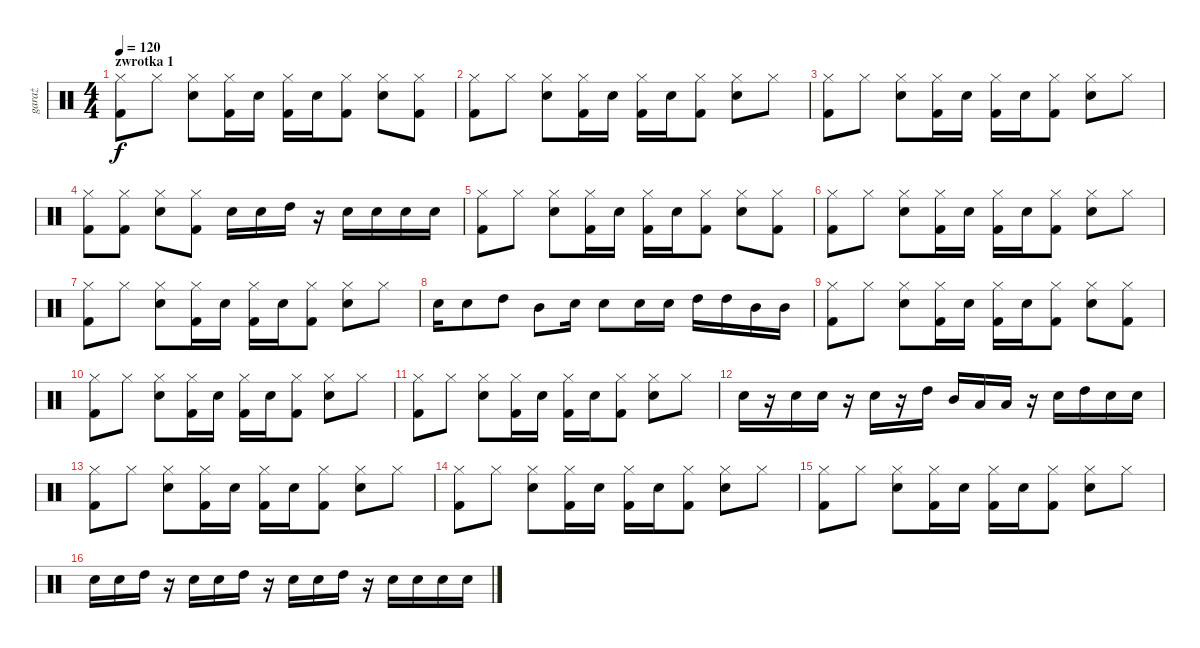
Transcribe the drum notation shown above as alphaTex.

\track ("garaż" "garaż") {instrument percussion}
\staff {score}
\articulation defaults
\ts (4 4)
\section ("" "zwrotka 1")
\tempo 120
\clef neutral
\ks c
("Hi-Hat (closed)" "Kick (hit) 2").8{dy f} "Hi-Hat (closed)".8 ("Hi-Hat (closed)" "Snare (hit) 2").8 ("Hi-Hat (closed)" "Kick (hit) 2").16 "Snare (hit) 2".16 ("Hi-Hat (closed)" "Kick (hit) 2").16 "Snare (hit) 2".16 ("Hi-Hat (closed)" "Kick (hit) 2").8 ("Hi-Hat (closed)" "Snare (hit) 2").8 ("Hi-Hat (closed)" "Kick (hit) 2").8 |
("Hi-Hat (closed)" "Kick (hit) 2").8 "Hi-Hat (closed)".8 ("Hi-Hat (closed)" "Snare (hit) 2").8 ("Hi-Hat (closed)" "Kick (hit) 2").16 "Snare (hit) 2".16 ("Hi-Hat (closed)" "Kick (hit) 2").16 "Snare (hit) 2".16 ("Hi-Hat (closed)" "Kick (hit) 2").8 ("Hi-Hat (closed)" "Snare (hit) 2").8 "Hi-Hat (closed)".8 |
("Hi-Hat (closed)" "Kick (hit) 2").8 "Hi-Hat (closed)".8 ("Hi-Hat (closed)" "Snare (hit) 2").8 ("Hi-Hat (closed)" "Kick (hit) 2").16 "Snare (hit) 2".16 ("Hi-Hat (closed)" "Kick (hit) 2").16 "Snare (hit) 2".16 ("Hi-Hat (closed)" "Kick (hit) 2").8 ("Hi-Hat (closed)" "Snare (hit) 2").8 "Hi-Hat (closed)".8 |
("Hi-Hat (closed)" "Kick (hit) 2").8 ("Hi-Hat (closed)" "Kick (hit) 2").8 ("Hi-Hat (closed)" "Snare (hit) 2").8 ("Hi-Hat (closed)" "Kick (hit) 2").8 "Snare (hit) 2".16 "Snare (hit) 2".16 "High Tom (hit)".16 r.16 "Snare (hit) 2".16 "Snare (hit) 2".16 "Snare (hit) 2".16 "Snare (hit) 2".16 |
("Hi-Hat (closed)" "Kick (hit) 2").8 "Hi-Hat (closed)".8 ("Hi-Hat (closed)" "Snare (hit) 2").8 ("Hi-Hat (closed)" "Kick (hit) 2").16 "Snare (hit) 2".16 ("Hi-Hat (closed)" "Kick (hit) 2").16 "Snare (hit) 2".16 ("Hi-Hat (closed)" "Kick (hit) 2").8 ("Hi-Hat (closed)" "Snare (hit) 2").8 ("Hi-Hat (closed)" "Kick (hit) 2").8 |
("Hi-Hat (closed)" "Kick (hit) 2").8 "Hi-Hat (closed)".8 ("Hi-Hat (closed)" "Snare (hit) 2").8 ("Hi-Hat (closed)" "Kick (hit) 2").16 "Snare (hit) 2".16 ("Hi-Hat (closed)" "Kick (hit) 2").16 "Snare (hit) 2".16 ("Hi-Hat (closed)" "Kick (hit) 2").8 ("Hi-Hat (closed)" "Snare (hit) 2").8 "Hi-Hat (closed)".8 |
("Hi-Hat (closed)" "Kick (hit) 2").8 "Hi-Hat (closed)".8 ("Hi-Hat (closed)" "Snare (hit) 2").8 ("Hi-Hat (closed)" "Kick (hit) 2").16 "Snare (hit) 2".16 ("Hi-Hat (closed)" "Kick (hit) 2").16 "Snare (hit) 2".16 ("Hi-Hat (closed)" "Kick (hit) 2").8 ("Hi-Hat (closed)" "Snare (hit) 2").8 "Hi-Hat (closed)".8 |
"Snare (hit) 2".16 "Snare (hit) 2".8 "High Tom (hit)".8 "Mid Tom (hit)".8 "Snare (hit) 2".16 "Snare (hit) 2".8 "Snare (hit) 2".16 "Snare (hit) 2".16 "High Tom (hit)".16 "High Tom (hit)".16 "Mid Tom (hit)".16 "Mid Tom (hit)".16 |
("Hi-Hat (closed)" "Kick (hit) 2").8 "Hi-Hat (closed)".8 ("Hi-Hat (closed)" "Snare (hit) 2").8 ("Hi-Hat (closed)" "Kick (hit) 2").16 "Snare (hit) 2".16 ("Hi-Hat (closed)" "Kick (hit) 2").16 "Snare (hit) 2".16 ("Hi-Hat (closed)" "Kick (hit) 2").8 ("Hi-Hat (closed)" "Snare (hit) 2").8 ("Hi-Hat (closed)" "Kick (hit) 2").8 |
("Hi-Hat (closed)" "Kick (hit) 2").8 "Hi-Hat (closed)".8 ("Hi-Hat (closed)" "Snare (hit) 2").8 ("Hi-Hat (closed)" "Kick (hit) 2").16 "Snare (hit) 2".16 ("Hi-Hat (closed)" "Kick (hit) 2").16 "Snare (hit) 2".16 ("Hi-Hat (closed)" "Kick (hit) 2").8 ("Hi-Hat (closed)" "Snare (hit) 2").8 "Hi-Hat (closed)".8 |
("Hi-Hat (closed)" "Kick (hit) 2").8 "Hi-Hat (closed)".8 ("Hi-Hat (closed)" "Snare (hit) 2").8 ("Hi-Hat (closed)" "Kick (hit) 2").16 "Snare (hit) 2".16 ("Hi-Hat (closed)" "Kick (hit) 2").16 "Snare (hit) 2".16 ("Hi-Hat (closed)" "Kick (hit) 2").8 ("Hi-Hat (closed)" "Snare (hit) 2").8 "Hi-Hat (closed)".8 |
"Snare (hit) 2".16 r.16 "Snare (hit) 2".16 "Snare (hit) 2".16 r.16 "Snare (hit) 2".16 r.16 "High Tom (hit)".16 "Mid Tom (hit)".16 "Low Tom (hit)".16 "Low Floor Tom (hit)".16 r.16 "Snare (hit) 2".16 "High Tom (hit)".16 "Snare (hit) 2".16 "Snare (hit) 2".16 |
("Hi-Hat (closed)" "Kick (hit) 2").8 "Hi-Hat (closed)".8 ("Hi-Hat (closed)" "Snare (hit) 2").8 ("Hi-Hat (closed)" "Kick (hit) 2").16 "Snare (hit) 2".16 ("Hi-Hat (closed)" "Kick (hit) 2").16 "Snare (hit) 2".16 ("Hi-Hat (closed)" "Kick (hit) 2").8 ("Hi-Hat (closed)" "Snare (hit) 2").8 "Hi-Hat (closed)".8 |
("Hi-Hat (closed)" "Kick (hit) 2").8 "Hi-Hat (closed)".8 ("Hi-Hat (closed)" "Snare (hit) 2").8 ("Hi-Hat (closed)" "Kick (hit) 2").16 "Snare (hit) 2".16 ("Hi-Hat (closed)" "Kick (hit) 2").16 "Snare (hit) 2".16 ("Hi-Hat (closed)" "Kick (hit) 2").8 ("Hi-Hat (closed)" "Snare (hit) 2").8 "Hi-Hat (closed)".8 |
("Hi-Hat (closed)" "Kick (hit) 2").8 "Hi-Hat (closed)".8 ("Hi-Hat (closed)" "Snare (hit) 2").8 ("Hi-Hat (closed)" "Kick (hit) 2").16 "Snare (hit) 2".16 ("Hi-Hat (closed)" "Kick (hit) 2").16 "Snare (hit) 2".16 ("Hi-Hat (closed)" "Kick (hit) 2").8 ("Hi-Hat (closed)" "Snare (hit) 2").8 "Hi-Hat (closed)".8 |
"Snare (hit) 2".16 "Snare (hit) 2".16 "High Tom (hit)".16 r.16 "Snare (hit) 2".16 "Snare (hit) 2".16 "High Tom (hit)".16 r.16 "Snare (hit) 2".16 "Snare (hit) 2".16 "High Tom (hit)".16 r.16 "Snare (hit) 2".16 "Snare (hit) 2".16 "Snare (hit) 2".16 "Snare (hit) 2".16
